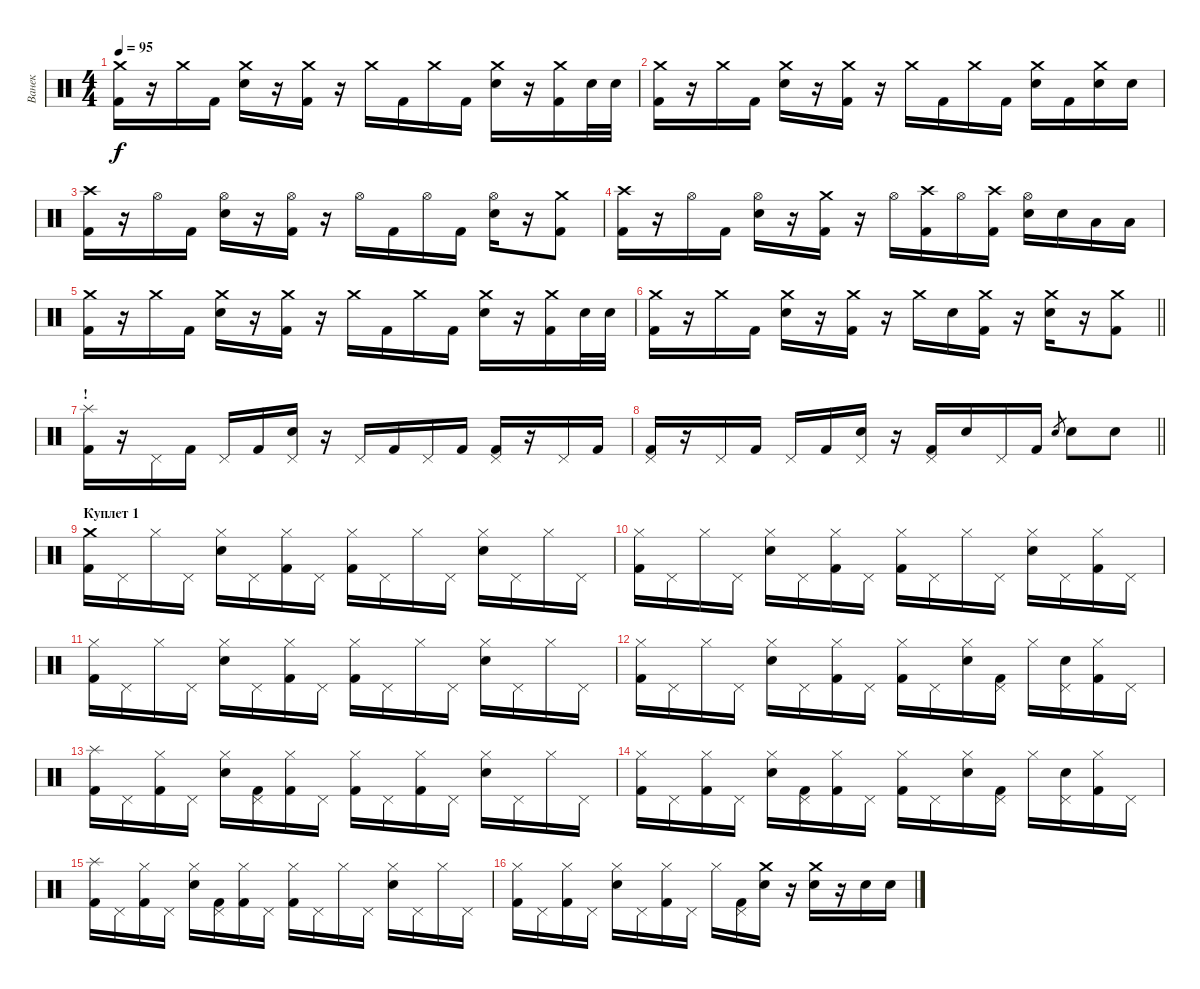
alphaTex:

\track ("Ванек" "Ванек") {instrument percussion}
\staff {score}
\articulation defaults
\ts (4 4)
\tempo 95
\clef neutral
\ks c
("Crash medium (hit)" "Kick (hit) 2").16{dy f} r.16 "Crash medium (hit)".16 "Kick (hit) 2".16 ("Crash medium (hit)" "Snare (hit) 2").16 r.16 ("Crash medium (hit)" "Kick (hit) 2").16 r.16 "Crash medium (hit)".16 "Kick (hit) 2".16 "Crash medium (hit)".16 "Kick (hit) 2".16 ("Crash medium (hit)" "Snare (hit) 2").16 r.16 ("Crash medium (hit)" "Kick (hit) 2").16 "Snare (hit) 2".32 "Snare (hit) 2".32 |
("Crash medium (hit)" "Kick (hit) 2").16 r.16 "Crash medium (hit)".16 "Kick (hit) 2".16 ("Crash medium (hit)" "Snare (hit) 2").16 r.16 ("Crash medium (hit)" "Kick (hit) 2").16 r.16 "Crash medium (hit)".16 "Kick (hit) 2".16 "Crash medium (hit)".16 "Kick (hit) 2".16 ("Crash medium (hit)" "Snare (hit) 2").16 "Kick (hit) 2".16 ("Crash medium (hit)" "Snare (hit) 2").16 "Snare (hit) 2".16 |
("Crash high (hit)" "Kick (hit) 2").16 r.16 "Hi-Hat (open)".16 "Kick (hit) 2".16 ("Hi-Hat (open)" "Snare (hit) 2").16 r.16 ("Hi-Hat (open)" "Kick (hit) 2").16 r.16 "Hi-Hat (open)".16 "Kick (hit) 2".16 "Hi-Hat (open)".16 "Kick (hit) 2".16 ("Hi-Hat (open)" "Snare (hit) 2").16 r.16 ("Crash medium (hit)" "Kick (hit) 2").8 |
("Crash high (hit)" "Kick (hit) 2").16 r.16 "Hi-Hat (open)".16 "Kick (hit) 2".16 ("Hi-Hat (open)" "Snare (hit) 2").16 r.16 ("Crash medium (hit)" "Kick (hit) 2").16 r.16 "Hi-Hat (open)".16 ("Crash high (hit)" "Kick (hit) 2").16 "Hi-Hat (open)".16 ("Crash high (hit)" "Kick (hit) 2").16 ("Hi-Hat (open)" "Snare (hit) 2").16 "Snare (hit) 2".16 "Low Floor Tom (hit)".16 "Low Floor Tom (hit)".16 |
("Crash medium (hit)" "Kick (hit) 2").16 r.16 "Crash medium (hit)".16 "Kick (hit) 2".16 ("Crash medium (hit)" "Snare (hit) 2").16 r.16 ("Crash medium (hit)" "Kick (hit) 2").16 r.16 "Crash medium (hit)".16 "Kick (hit) 2".16 "Crash medium (hit)".16 "Kick (hit) 2".16 ("Crash medium (hit)" "Snare (hit) 2").16 r.16 ("Crash medium (hit)" "Kick (hit) 2").16 "Snare (hit) 2".32 "Snare (hit) 2".32 |
\barLineRight lightlight
("Crash medium (hit)" "Kick (hit) 2").16 r.16 "Crash medium (hit)".16 "Kick (hit) 2".16 ("Crash medium (hit)" "Snare (hit) 2").16 r.16 ("Crash medium (hit)" "Kick (hit) 2").16 r.16 "Crash medium (hit)".16 "Snare (hit) 2".16 ("Crash medium (hit)" "Kick (hit) 2").16 r.16 ("Crash medium (hit)" "Snare (hit) 2").16 r.16 ("Crash medium (hit)" "Kick (hit) 2").8 |
\section ("" "!")
("Splash (hit)" "Kick (hit) 2").16 r.16 "Pedal Hi-Hat (hit)".16 "Kick (hit) 2".16 "Pedal Hi-Hat (hit)".16 "Kick (hit) 2".16 ("Pedal Hi-Hat (hit)" "Snare (hit) 2").16 r.16 "Pedal Hi-Hat (hit)".16 "Kick (hit) 2".16 "Pedal Hi-Hat (hit)".16 "Kick (hit) 2".16 ("Pedal Hi-Hat (hit)" "Kick (hit) 2").16 r.16 "Pedal Hi-Hat (hit)".16 "Kick (hit) 2".16 |
\barLineRight lightlight
("Pedal Hi-Hat (hit)" "Kick (hit) 2").16 r.16 "Pedal Hi-Hat (hit)".16 "Kick (hit) 2".16 "Pedal Hi-Hat (hit)".16 "Kick (hit) 2".16 ("Pedal Hi-Hat (hit)" "Snare (hit) 2").16 r.16 ("Pedal Hi-Hat (hit)" "Kick (hit) 2").16 "Snare (hit) 2".16 "Pedal Hi-Hat (hit)".16 "Kick (hit) 2".16 "Snare (hit) 2".8{gr} "Snare (hit) 2".8 "Snare (hit) 2".8 |
\section ("" "Куплет 1")
("Crash medium (hit)" "Kick (hit) 2").16 "Pedal Hi-Hat (hit)".16 "Hi-Hat (closed)".16 "Pedal Hi-Hat (hit)".16 ("Hi-Hat (closed)" "Snare (hit) 2").16 "Pedal Hi-Hat (hit)".16 ("Hi-Hat (closed)" "Kick (hit) 2").16 "Pedal Hi-Hat (hit)".16 ("Hi-Hat (closed)" "Kick (hit) 2").16 "Pedal Hi-Hat (hit)".16 "Hi-Hat (closed)".16 "Pedal Hi-Hat (hit)".16 ("Hi-Hat (closed)" "Snare (hit) 2").16 "Pedal Hi-Hat (hit)".16 "Hi-Hat (closed)".16 "Pedal Hi-Hat (hit)".16 |
("Hi-Hat (closed)" "Kick (hit) 2").16 "Pedal Hi-Hat (hit)".16 "Hi-Hat (closed)".16 "Pedal Hi-Hat (hit)".16 ("Hi-Hat (closed)" "Snare (hit) 2").16 "Pedal Hi-Hat (hit)".16 ("Hi-Hat (closed)" "Kick (hit) 2").16 "Pedal Hi-Hat (hit)".16 ("Hi-Hat (closed)" "Kick (hit) 2").16 "Pedal Hi-Hat (hit)".16 "Hi-Hat (closed)".16 "Pedal Hi-Hat (hit)".16 ("Hi-Hat (closed)" "Snare (hit) 2").16 "Pedal Hi-Hat (hit)".16 ("Hi-Hat (closed)" "Kick (hit) 2").16 "Pedal Hi-Hat (hit)".16 |
("Hi-Hat (closed)" "Kick (hit) 2").16 "Pedal Hi-Hat (hit)".16 "Hi-Hat (closed)".16 "Pedal Hi-Hat (hit)".16 ("Hi-Hat (closed)" "Snare (hit) 2").16 "Pedal Hi-Hat (hit)".16 ("Hi-Hat (closed)" "Kick (hit) 2").16 "Pedal Hi-Hat (hit)".16 ("Hi-Hat (closed)" "Kick (hit) 2").16 "Pedal Hi-Hat (hit)".16 "Hi-Hat (closed)".16 "Pedal Hi-Hat (hit)".16 ("Hi-Hat (closed)" "Snare (hit) 2").16 "Pedal Hi-Hat (hit)".16 "Hi-Hat (closed)".16 "Pedal Hi-Hat (hit)".16 |
("Hi-Hat (closed)" "Kick (hit) 2").16 "Pedal Hi-Hat (hit)".16 "Hi-Hat (closed)".16 "Pedal Hi-Hat (hit)".16 ("Hi-Hat (closed)" "Snare (hit) 2").16 "Pedal Hi-Hat (hit)".16 ("Hi-Hat (closed)" "Kick (hit) 2").16 "Pedal Hi-Hat (hit)".16 ("Hi-Hat (closed)" "Kick (hit) 2").16 "Pedal Hi-Hat (hit)".16 ("Hi-Hat (closed)" "Snare (hit) 2").16 ("Pedal Hi-Hat (hit)" "Kick (hit) 2").16 "Hi-Hat (closed)".16 ("Pedal Hi-Hat (hit)" "Snare (hit) 2").16 ("Hi-Hat (closed)" "Kick (hit) 2").16 "Pedal Hi-Hat (hit)".16 |
("Splash (hit)" "Kick (hit) 2").16 "Pedal Hi-Hat (hit)".16 ("Hi-Hat (closed)" "Kick (hit) 2").16 "Pedal Hi-Hat (hit)".16 ("Hi-Hat (closed)" "Snare (hit) 2").16 ("Pedal Hi-Hat (hit)" "Kick (hit) 2").16 ("Hi-Hat (closed)" "Kick (hit) 2").16 "Pedal Hi-Hat (hit)".16 ("Hi-Hat (closed)" "Kick (hit) 2").16 "Pedal Hi-Hat (hit)".16 ("Hi-Hat (closed)" "Kick (hit) 2").16 "Pedal Hi-Hat (hit)".16 ("Hi-Hat (closed)" "Snare (hit) 2").16 "Pedal Hi-Hat (hit)".16 "Hi-Hat (closed)".16 "Pedal Hi-Hat (hit)".16 |
("Hi-Hat (closed)" "Kick (hit) 2").16 "Pedal Hi-Hat (hit)".16 ("Hi-Hat (closed)" "Kick (hit) 2").16 "Pedal Hi-Hat (hit)".16 ("Hi-Hat (closed)" "Snare (hit) 2").16 ("Pedal Hi-Hat (hit)" "Kick (hit) 2").16 ("Hi-Hat (closed)" "Kick (hit) 2").16 "Pedal Hi-Hat (hit)".16 ("Hi-Hat (closed)" "Kick (hit) 2").16 "Pedal Hi-Hat (hit)".16 ("Hi-Hat (closed)" "Snare (hit) 2").16 ("Pedal Hi-Hat (hit)" "Kick (hit) 2").16 "Hi-Hat (closed)".16 ("Pedal Hi-Hat (hit)" "Snare (hit) 2").16 ("Hi-Hat (closed)" "Kick (hit) 2").16 "Pedal Hi-Hat (hit)".16 |
("Splash (hit)" "Kick (hit) 2").16 "Pedal Hi-Hat (hit)".16 ("Hi-Hat (closed)" "Kick (hit) 2").16 "Pedal Hi-Hat (hit)".16 ("Hi-Hat (closed)" "Snare (hit) 2").16 ("Pedal Hi-Hat (hit)" "Kick (hit) 2").16 ("Hi-Hat (closed)" "Kick (hit) 2").16 "Pedal Hi-Hat (hit)".16 ("Hi-Hat (closed)" "Kick (hit) 2").16 "Pedal Hi-Hat (hit)".16 "Hi-Hat (closed)".16 "Pedal Hi-Hat (hit)".16 ("Hi-Hat (closed)" "Snare (hit) 2").16 "Pedal Hi-Hat (hit)".16 "Hi-Hat (closed)".16 "Pedal Hi-Hat (hit)".16 |
("Hi-Hat (closed)" "Kick (hit) 2").16 "Pedal Hi-Hat (hit)".16 ("Hi-Hat (closed)" "Kick (hit) 2").16 "Pedal Hi-Hat (hit)".16 ("Hi-Hat (closed)" "Snare (hit) 2").16 "Pedal Hi-Hat (hit)".16 ("Hi-Hat (closed)" "Kick (hit) 2").16 "Pedal Hi-Hat (hit)".16 "Hi-Hat (closed)".16 ("Pedal Hi-Hat (hit)" "Kick (hit) 2").16 ("Crash medium (hit)" "Snare (hit) 2").16 r.16 ("Crash medium (hit)" "Snare (hit) 2").16 r.16 "Snare (hit) 2".16 "Snare (hit) 2".16
